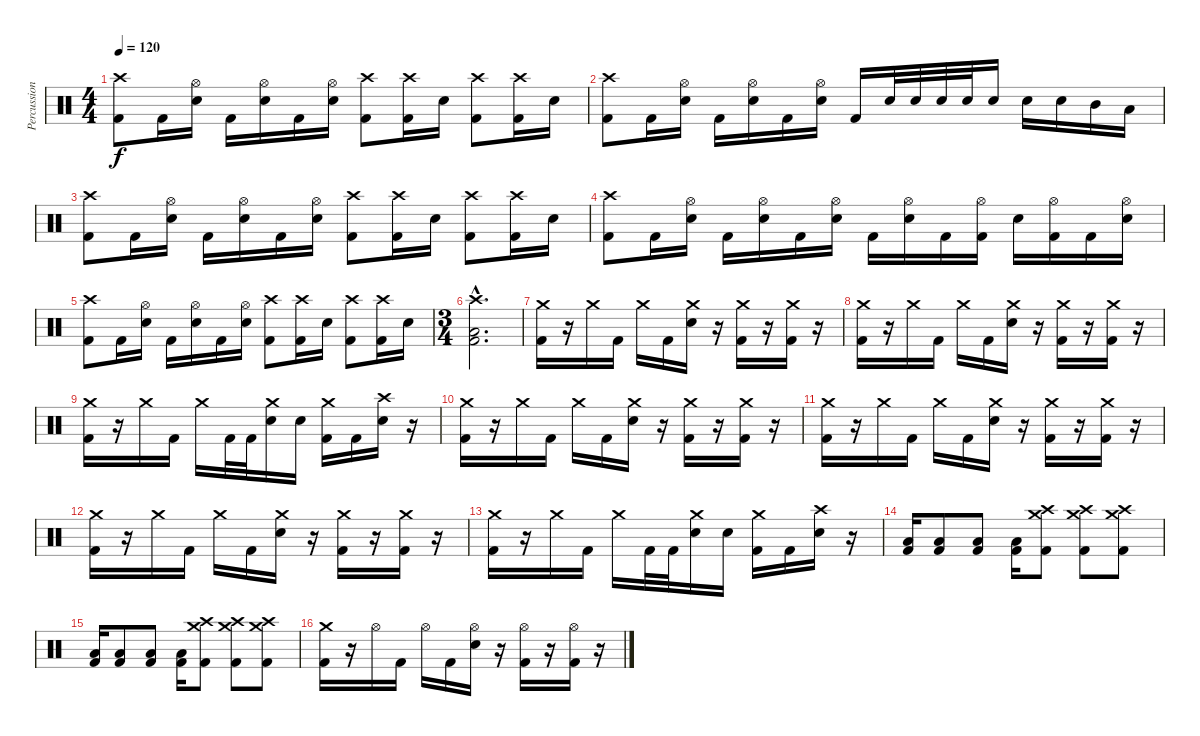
\track ("Percussion" "Percussion") {instrument percussion}
\staff {score}
\articulation defaults
\ts (4 4)
\tempo 120
\clef neutral
\ks c
("Crash high (hit)" "Kick (hit) 2").8{dy f} "Kick (hit) 2".16 ("Hi-Hat (open)" "Electric Snare (hit)").16 "Kick (hit) 2".16 ("Hi-Hat (open)" "Electric Snare (hit)").16 "Kick (hit) 2".16 ("Hi-Hat (open)" "Electric Snare (hit)").16 ("Crash high (hit)" "Kick (hit) 2").8 ("Crash high (hit)" "Kick (hit) 2").16 "Electric Snare (hit)".16 ("Crash high (hit)" "Kick (hit) 2").8 ("Crash high (hit)" "Kick (hit) 2").16 "Electric Snare (hit)".16 |
("Crash high (hit)" "Kick (hit) 2").8 "Kick (hit) 2".16 ("Hi-Hat (open)" "Electric Snare (hit)").16 "Kick (hit) 2".16 ("Hi-Hat (open)" "Electric Snare (hit)").16 "Kick (hit) 2".16 ("Hi-Hat (open)" "Electric Snare (hit)").16 "Kick (hit) 2".16 "Electric Snare (hit)".32 "Electric Snare (hit)".32 "Electric Snare (hit)".32 "Electric Snare (hit)".32 "Electric Snare (hit)".16 "Electric Snare (hit)".16 "Electric Snare (hit)".16 "Mid Tom (hit)".16 "Low Tom (hit)".16 |
("Crash high (hit)" "Kick (hit) 2").8 "Kick (hit) 2".16 ("Hi-Hat (open)" "Electric Snare (hit)").16 "Kick (hit) 2".16 ("Hi-Hat (open)" "Electric Snare (hit)").16 "Kick (hit) 2".16 ("Hi-Hat (open)" "Electric Snare (hit)").16 ("Crash high (hit)" "Kick (hit) 2").8 ("Crash high (hit)" "Kick (hit) 2").16 "Electric Snare (hit)".16 ("Crash high (hit)" "Kick (hit) 2").8 ("Crash high (hit)" "Kick (hit) 2").16 "Electric Snare (hit)".16 |
("Crash high (hit)" "Kick (hit) 2").8 "Kick (hit) 2".16 ("Hi-Hat (open)" "Electric Snare (hit)").16 "Kick (hit) 2".16 ("Hi-Hat (open)" "Electric Snare (hit)").16 "Kick (hit) 2".16 ("Hi-Hat (open)" "Electric Snare (hit)").16 "Kick (hit) 2".16 ("Hi-Hat (open)" "Electric Snare (hit)").16 "Kick (hit) 2".16 ("Hi-Hat (open)" "Kick (hit) 2").16 "Electric Snare (hit)".16 ("Hi-Hat (open)" "Kick (hit) 2").16 "Kick (hit) 2".16 ("Hi-Hat (open)" "Electric Snare (hit)").16 |
("Crash high (hit)" "Kick (hit) 2").8 "Kick (hit) 2".16 ("Hi-Hat (open)" "Electric Snare (hit)").16 "Kick (hit) 2".16 ("Hi-Hat (open)" "Electric Snare (hit)").16 "Kick (hit) 2".16 ("Hi-Hat (open)" "Electric Snare (hit)").16 ("Crash high (hit)" "Kick (hit) 2").8 ("Crash high (hit)" "Kick (hit) 2").16 "Electric Snare (hit)".16 ("Crash high (hit)" "Kick (hit) 2").8 ("Crash high (hit)" "Kick (hit) 2").16 "Electric Snare (hit)".16 |
\ts (3 4)
("Crash high (hit)"{hac} "Low Floor Tom (hit)"{hac} "Kick (hit) 2"{hac}).2{d} |
("Crash medium (hit)" "Kick (hit) 2").16 r.16 "Crash medium (hit)".16 "Kick (hit) 2".16 "Crash medium (hit)".16 "Kick (hit) 2".16 ("Crash medium (hit)" "Electric Snare (hit)").16 r.16 ("Crash medium (hit)" "Kick (hit) 2").16 r.16 ("Crash medium (hit)" "Kick (hit) 2").16 r.16 |
("Crash medium (hit)" "Kick (hit) 2").16 r.16 "Crash medium (hit)".16 "Kick (hit) 2".16 "Crash medium (hit)".16 "Kick (hit) 2".16 ("Crash medium (hit)" "Electric Snare (hit)").16 r.16 ("Crash medium (hit)" "Kick (hit) 2").16 r.16 ("Crash medium (hit)" "Kick (hit) 2").16 r.16 |
("Crash medium (hit)" "Kick (hit) 2").16 r.16 "Crash medium (hit)".16 "Kick (hit) 2".16 "Crash medium (hit)".16 "Kick (hit) 2".32 "Kick (hit) 2".32 ("Crash medium (hit)" "Electric Snare (hit)").16 "Electric Snare (hit)".16 ("Crash medium (hit)" "Kick (hit) 2").16 "Kick (hit) 2".16 ("Crash high (hit)" "Electric Snare (hit)").16 r.16 |
("Crash medium (hit)" "Kick (hit) 2").16 r.16 "Crash medium (hit)".16 "Kick (hit) 2".16 "Crash medium (hit)".16 "Kick (hit) 2".16 ("Crash medium (hit)" "Electric Snare (hit)").16 r.16 ("Crash medium (hit)" "Kick (hit) 2").16 r.16 ("Crash medium (hit)" "Kick (hit) 2").16 r.16 |
("Crash medium (hit)" "Kick (hit) 2").16 r.16 "Crash medium (hit)".16 "Kick (hit) 2".16 "Crash medium (hit)".16 "Kick (hit) 2".16 ("Crash medium (hit)" "Electric Snare (hit)").16 r.16 ("Crash medium (hit)" "Kick (hit) 2").16 r.16 ("Crash medium (hit)" "Kick (hit) 2").16 r.16 |
("Crash medium (hit)" "Kick (hit) 2").16 r.16 "Crash medium (hit)".16 "Kick (hit) 2".16 "Crash medium (hit)".16 "Kick (hit) 2".16 ("Crash medium (hit)" "Electric Snare (hit)").16 r.16 ("Crash medium (hit)" "Kick (hit) 2").16 r.16 ("Crash medium (hit)" "Kick (hit) 2").16 r.16 |
("Crash medium (hit)" "Kick (hit) 2").16 r.16 "Crash medium (hit)".16 "Kick (hit) 2".16 "Crash medium (hit)".16 "Kick (hit) 2".32 "Kick (hit) 2".32 ("Crash medium (hit)" "Electric Snare (hit)").16 "Electric Snare (hit)".16 ("Crash medium (hit)" "Kick (hit) 2").16 "Kick (hit) 2".16 ("Crash high (hit)" "Electric Snare (hit)").16 r.16 |
("Low Floor Tom (hit)" "Kick (hit) 2").16 ("Low Floor Tom (hit)" "Kick (hit) 2").8 ("Low Floor Tom (hit)" "Kick (hit) 2").8 ("Low Floor Tom (hit)" "Kick (hit) 2").16 ("Crash high (hit)" "Crash medium (hit)" "Kick (hit) 2").8 ("Crash high (hit)" "Crash medium (hit)" "Kick (hit) 2").8 ("Crash high (hit)" "Crash medium (hit)" "Kick (hit) 2").8 |
("Low Floor Tom (hit)" "Kick (hit) 2").16 ("Low Floor Tom (hit)" "Kick (hit) 2").8 ("Low Floor Tom (hit)" "Kick (hit) 2").8 ("Low Floor Tom (hit)" "Kick (hit) 2").16 ("Crash high (hit)" "Crash medium (hit)" "Kick (hit) 2").8 ("Crash high (hit)" "Crash medium (hit)" "Kick (hit) 2").8 ("Crash high (hit)" "Crash medium (hit)" "Kick (hit) 2").8 |
("Crash medium (hit)" "Kick (hit) 2").16 r.16 "Hi-Hat (open)".16 "Kick (hit) 2".16 "Hi-Hat (open)".16 "Kick (hit) 2".16 ("Hi-Hat (open)" "Electric Snare (hit)").16 r.16 ("Hi-Hat (open)" "Kick (hit) 2").16 r.16 ("Hi-Hat (open)" "Kick (hit) 2").16 r.16
